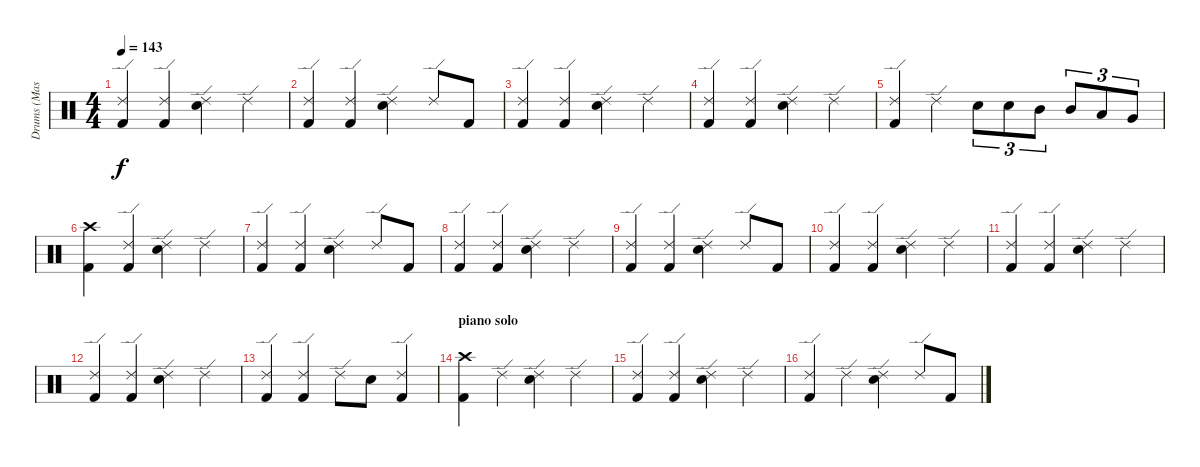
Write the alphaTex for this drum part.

\track ("Drums (Mason)" "Drums (Mas") {instrument percussion}
\staff {score}
\articulation defaults
\ts (4 4)
\tempo 143
\clef neutral
\ks c
("Ride (edge) 2" "Kick (hit) 2").4{dy f} ("Ride (edge) 2" "Kick (hit) 2").4 ("Ride (edge) 2" "Electric Snare (hit)").4 "Ride (edge) 2".4 |
("Ride (edge) 2" "Kick (hit) 2").4 ("Ride (edge) 2" "Kick (hit) 2").4 ("Ride (edge) 2" "Electric Snare (hit)").4 "Ride (edge) 2".8 "Kick (hit) 2".8 |
("Ride (edge) 2" "Kick (hit) 2").4 ("Ride (edge) 2" "Kick (hit) 2").4 ("Ride (edge) 2" "Electric Snare (hit)").4 "Ride (edge) 2".4 |
("Ride (edge) 2" "Kick (hit) 2").4 ("Ride (edge) 2" "Kick (hit) 2").4 ("Ride (edge) 2" "Electric Snare (hit)").4 "Ride (edge) 2".4 |
("Ride (edge) 2" "Kick (hit) 2").4 "Ride (edge) 2".4 "Electric Snare (hit)".8{tu (3 2)} "Electric Snare (hit)".8{tu (3 2)} "Mid Tom (hit)".8{tu (3 2)} "Mid Tom (hit)".8{tu (3 2)} "Low Tom (hit)".8{tu (3 2)} "Very Low Tom (hit)".8{tu (3 2)} |
("Crash high (hit)" "Kick (hit) 2").4 ("Ride (edge) 2" "Kick (hit) 2").4 ("Ride (edge) 2" "Electric Snare (hit)").4 "Ride (edge) 2".4 |
("Ride (edge) 2" "Kick (hit) 2").4 ("Ride (edge) 2" "Kick (hit) 2").4 ("Ride (edge) 2" "Electric Snare (hit)").4 "Ride (edge) 2".8 "Kick (hit) 2".8 |
("Ride (edge) 2" "Kick (hit) 2").4 ("Ride (edge) 2" "Kick (hit) 2").4 ("Ride (edge) 2" "Electric Snare (hit)").4 "Ride (edge) 2".4 |
("Ride (edge) 2" "Kick (hit) 2").4 ("Ride (edge) 2" "Kick (hit) 2").4 ("Ride (edge) 2" "Electric Snare (hit)").4 "Ride (edge) 2".8 "Kick (hit) 2".8 |
("Ride (edge) 2" "Kick (hit) 2").4 ("Ride (edge) 2" "Kick (hit) 2").4 ("Ride (edge) 2" "Electric Snare (hit)").4 "Ride (edge) 2".4 |
("Ride (edge) 2" "Kick (hit) 2").4 ("Ride (edge) 2" "Kick (hit) 2").4 ("Ride (edge) 2" "Electric Snare (hit)").4 "Ride (edge) 2".4 |
("Ride (edge) 2" "Kick (hit) 2").4 ("Ride (edge) 2" "Kick (hit) 2").4 ("Ride (edge) 2" "Electric Snare (hit)").4 "Ride (edge) 2".4 |
("Ride (edge) 2" "Kick (hit) 2").4 ("Ride (edge) 2" "Kick (hit) 2").4 "Ride (edge) 2".8 "Electric Snare (hit)".8 ("Ride (edge) 2" "Kick (hit) 2").4 |
\section ("" "piano solo")
("Crash high (hit)" "Kick (hit) 2").4 "Ride (edge) 2".4 ("Ride (edge) 2" "Electric Snare (hit)").4 "Ride (edge) 2".4 |
("Ride (edge) 2" "Kick (hit) 2").4 ("Ride (edge) 2" "Kick (hit) 2").4 ("Ride (edge) 2" "Electric Snare (hit)").4 "Ride (edge) 2".4 |
("Ride (edge) 2" "Kick (hit) 2").4 "Ride (edge) 2".4 ("Ride (edge) 2" "Electric Snare (hit)").4 "Ride (edge) 2".8 "Kick (hit) 2".8
